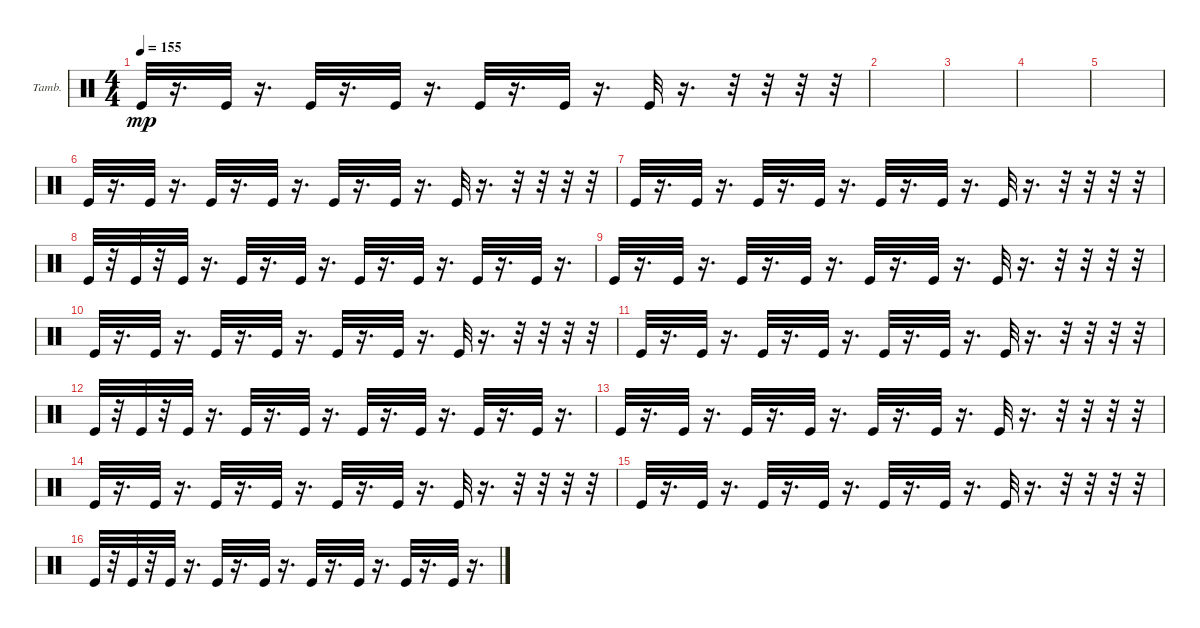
\bracketExtendMode groupsimilarinstruments
\firstSystemTrackNameOrientation horizontal
\otherSystemsTrackNameOrientation horizontal
\track ("Е. Кулаков" "Tamb.") {instrument percussion}
\staff {score}
\articulation defaults
\ts (4 4)
\tempo 155
\clef neutral
\ks c "Kick (hit)".32{dy mp}
r.16{d} "Kick (hit)".32 r.16{d} "Kick (hit)".32 r.16{d} "Kick (hit)".32 r.16{d} "Kick (hit)".32 r.16{d} "Kick (hit)".32 r.16{d} "Kick (hit)".32 r.16{d} r.32 r.32 r.32 r.32 |
|
|
|
|
"Kick (hit)".32 r.16{d} "Kick (hit)".32 r.16{d} "Kick (hit)".32 r.16{d} "Kick (hit)".32 r.16{d} "Kick (hit)".32 r.16{d} "Kick (hit)".32 r.16{d} "Kick (hit)".32 r.16{d} r.32 r.32 r.32 r.32 |
"Kick (hit)".32 r.16{d} "Kick (hit)".32 r.16{d} "Kick (hit)".32 r.16{d} "Kick (hit)".32 r.16{d} "Kick (hit)".32 r.16{d} "Kick (hit)".32 r.16{d} "Kick (hit)".32 r.16{d} r.32 r.32 r.32 r.32 |
"Kick (hit)".32 r.32 "Kick (hit)".32 r.32 "Kick (hit)".32 r.16{d} "Kick (hit)".32 r.16{d} "Kick (hit)".32 r.16{d} "Kick (hit)".32 r.16{d} "Kick (hit)".32 r.16{d} "Kick (hit)".32 r.16{d} "Kick (hit)".32 r.16{d} |
"Kick (hit)".32 r.16{d} "Kick (hit)".32 r.16{d} "Kick (hit)".32 r.16{d} "Kick (hit)".32 r.16{d} "Kick (hit)".32 r.16{d} "Kick (hit)".32 r.16{d} "Kick (hit)".32 r.16{d} r.32 r.32 r.32 r.32 |
"Kick (hit)".32 r.16{d} "Kick (hit)".32 r.16{d} "Kick (hit)".32 r.16{d} "Kick (hit)".32 r.16{d} "Kick (hit)".32 r.16{d} "Kick (hit)".32 r.16{d} "Kick (hit)".32 r.16{d} r.32 r.32 r.32 r.32 |
"Kick (hit)".32 r.16{d} "Kick (hit)".32 r.16{d} "Kick (hit)".32 r.16{d} "Kick (hit)".32 r.16{d} "Kick (hit)".32 r.16{d} "Kick (hit)".32 r.16{d} "Kick (hit)".32 r.16{d} r.32 r.32 r.32 r.32 |
"Kick (hit)".32 r.32 "Kick (hit)".32 r.32 "Kick (hit)".32 r.16{d} "Kick (hit)".32 r.16{d} "Kick (hit)".32 r.16{d} "Kick (hit)".32 r.16{d} "Kick (hit)".32 r.16{d} "Kick (hit)".32 r.16{d} "Kick (hit)".32 r.16{d} |
"Kick (hit)".32 r.16{d} "Kick (hit)".32 r.16{d} "Kick (hit)".32 r.16{d} "Kick (hit)".32 r.16{d} "Kick (hit)".32 r.16{d} "Kick (hit)".32 r.16{d} "Kick (hit)".32 r.16{d} r.32 r.32 r.32 r.32 |
"Kick (hit)".32 r.16{d} "Kick (hit)".32 r.16{d} "Kick (hit)".32 r.16{d} "Kick (hit)".32 r.16{d} "Kick (hit)".32 r.16{d} "Kick (hit)".32 r.16{d} "Kick (hit)".32 r.16{d} r.32 r.32 r.32 r.32 |
"Kick (hit)".32 r.16{d} "Kick (hit)".32 r.16{d} "Kick (hit)".32 r.16{d} "Kick (hit)".32 r.16{d} "Kick (hit)".32 r.16{d} "Kick (hit)".32 r.16{d} "Kick (hit)".32 r.16{d} r.32 r.32 r.32 r.32 |
"Kick (hit)".32 r.32 "Kick (hit)".32 r.32 "Kick (hit)".32 r.16{d} "Kick (hit)".32 r.16{d} "Kick (hit)".32 r.16{d} "Kick (hit)".32 r.16{d} "Kick (hit)".32 r.16{d} "Kick (hit)".32 r.16{d} "Kick (hit)".32 r.16{d}
